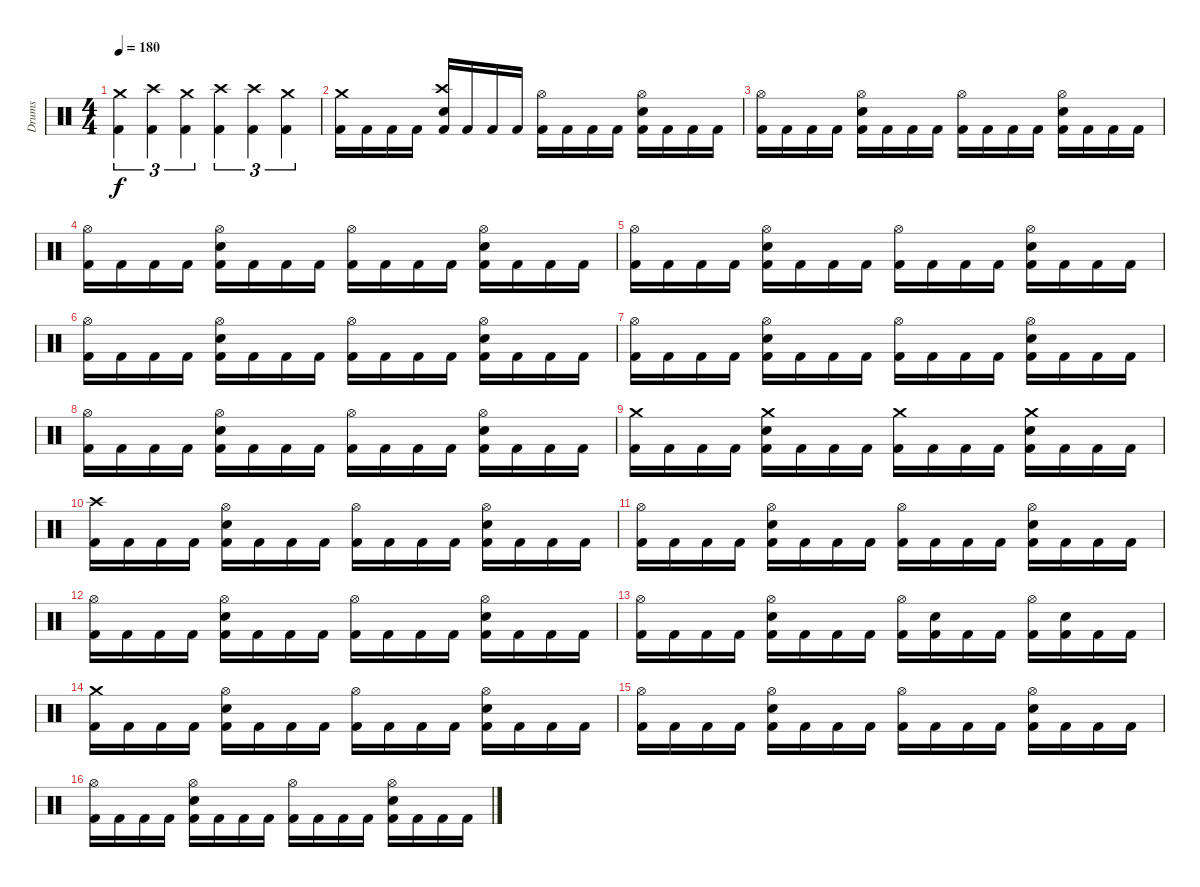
\track ("Drums" "Drums") {instrument percussion}
\staff {score}
\articulation defaults
\ts (4 4)
\tempo 180
\clef neutral
\ks c
("Crash medium (hit)" "Kick (hit) 2").4{tu (3 2) dy f} ("Crash high (hit)" "Kick (hit) 2").4{tu (3 2)} ("Crash medium (hit)" "Kick (hit) 2").4{tu (3 2)} ("Crash high (hit)" "Kick (hit) 2").4{tu (3 2)} ("Crash high (hit)" "Kick (hit) 2").4{tu (3 2)} ("Crash medium (hit)" "Kick (hit) 2").4{tu (3 2)} |
("Crash medium (hit)" "Kick (hit) 2").16 "Kick (hit) 2".16 "Kick (hit) 2".16 "Kick (hit) 2".16 ("Crash high (hit)" "Snare (hit) 2" "Kick (hit) 2").16 "Kick (hit) 2".16 "Kick (hit) 2".16 "Kick (hit) 2".16 ("Hi-Hat (open)" "Kick (hit) 2").16 "Kick (hit) 2".16 "Kick (hit) 2".16 "Kick (hit) 2".16 ("Hi-Hat (open)" "Snare (hit) 2" "Kick (hit) 2").16 "Kick (hit) 2".16 "Kick (hit) 2".16 "Kick (hit) 2".16 |
("Hi-Hat (open)" "Kick (hit) 2").16 "Kick (hit) 2".16 "Kick (hit) 2".16 "Kick (hit) 2".16 ("Hi-Hat (open)" "Snare (hit) 2" "Kick (hit) 2").16 "Kick (hit) 2".16 "Kick (hit) 2".16 "Kick (hit) 2".16 ("Hi-Hat (open)" "Kick (hit) 2").16 "Kick (hit) 2".16 "Kick (hit) 2".16 "Kick (hit) 2".16 ("Hi-Hat (open)" "Snare (hit) 2" "Kick (hit) 2").16 "Kick (hit) 2".16 "Kick (hit) 2".16 "Kick (hit) 2".16 |
("Hi-Hat (open)" "Kick (hit) 2").16 "Kick (hit) 2".16 "Kick (hit) 2".16 "Kick (hit) 2".16 ("Hi-Hat (open)" "Snare (hit) 2" "Kick (hit) 2").16 "Kick (hit) 2".16 "Kick (hit) 2".16 "Kick (hit) 2".16 ("Hi-Hat (open)" "Kick (hit) 2").16 "Kick (hit) 2".16 "Kick (hit) 2".16 "Kick (hit) 2".16 ("Hi-Hat (open)" "Snare (hit) 2" "Kick (hit) 2").16 "Kick (hit) 2".16 "Kick (hit) 2".16 "Kick (hit) 2".16 |
("Hi-Hat (open)" "Kick (hit) 2").16 "Kick (hit) 2".16 "Kick (hit) 2".16 "Kick (hit) 2".16 ("Hi-Hat (open)" "Snare (hit) 2" "Kick (hit) 2").16 "Kick (hit) 2".16 "Kick (hit) 2".16 "Kick (hit) 2".16 ("Hi-Hat (open)" "Kick (hit) 2").16 "Kick (hit) 2".16 "Kick (hit) 2".16 "Kick (hit) 2".16 ("Hi-Hat (open)" "Snare (hit) 2" "Kick (hit) 2").16 "Kick (hit) 2".16 "Kick (hit) 2".16 "Kick (hit) 2".16 |
("Hi-Hat (open)" "Kick (hit) 2").16 "Kick (hit) 2".16 "Kick (hit) 2".16 "Kick (hit) 2".16 ("Hi-Hat (open)" "Snare (hit) 2" "Kick (hit) 2").16 "Kick (hit) 2".16 "Kick (hit) 2".16 "Kick (hit) 2".16 ("Hi-Hat (open)" "Kick (hit) 2").16 "Kick (hit) 2".16 "Kick (hit) 2".16 "Kick (hit) 2".16 ("Hi-Hat (open)" "Snare (hit) 2" "Kick (hit) 2").16 "Kick (hit) 2".16 "Kick (hit) 2".16 "Kick (hit) 2".16 |
("Hi-Hat (open)" "Kick (hit) 2").16 "Kick (hit) 2".16 "Kick (hit) 2".16 "Kick (hit) 2".16 ("Hi-Hat (open)" "Snare (hit) 2" "Kick (hit) 2").16 "Kick (hit) 2".16 "Kick (hit) 2".16 "Kick (hit) 2".16 ("Hi-Hat (open)" "Kick (hit) 2").16 "Kick (hit) 2".16 "Kick (hit) 2".16 "Kick (hit) 2".16 ("Hi-Hat (open)" "Snare (hit) 2" "Kick (hit) 2").16 "Kick (hit) 2".16 "Kick (hit) 2".16 "Kick (hit) 2".16 |
("Hi-Hat (open)" "Kick (hit) 2").16 "Kick (hit) 2".16 "Kick (hit) 2".16 "Kick (hit) 2".16 ("Hi-Hat (open)" "Snare (hit) 2" "Kick (hit) 2").16 "Kick (hit) 2".16 "Kick (hit) 2".16 "Kick (hit) 2".16 ("Hi-Hat (open)" "Kick (hit) 2").16 "Kick (hit) 2".16 "Kick (hit) 2".16 "Kick (hit) 2".16 ("Hi-Hat (open)" "Snare (hit) 2" "Kick (hit) 2").16 "Kick (hit) 2".16 "Kick (hit) 2".16 "Kick (hit) 2".16 |
("Crash medium (hit)" "Kick (hit) 2").16 "Kick (hit) 2".16 "Kick (hit) 2".16 "Kick (hit) 2".16 ("Crash medium (hit)" "Snare (hit) 2" "Kick (hit) 2").16 "Kick (hit) 2".16 "Kick (hit) 2".16 "Kick (hit) 2".16 ("Crash medium (hit)" "Kick (hit) 2").16 "Kick (hit) 2".16 "Kick (hit) 2".16 "Kick (hit) 2".16 ("Crash medium (hit)" "Snare (hit) 2" "Kick (hit) 2").16 "Kick (hit) 2".16 "Kick (hit) 2".16 "Kick (hit) 2".16 |
("Crash high (hit)" "Kick (hit) 2").16 "Kick (hit) 2".16 "Kick (hit) 2".16 "Kick (hit) 2".16 ("Hi-Hat (open)" "Snare (hit) 2" "Kick (hit) 2").16 "Kick (hit) 2".16 "Kick (hit) 2".16 "Kick (hit) 2".16 ("Hi-Hat (open)" "Kick (hit) 2").16 "Kick (hit) 2".16 "Kick (hit) 2".16 "Kick (hit) 2".16 ("Hi-Hat (open)" "Snare (hit) 2" "Kick (hit) 2").16 "Kick (hit) 2".16 "Kick (hit) 2".16 "Kick (hit) 2".16 |
("Hi-Hat (open)" "Kick (hit) 2").16 "Kick (hit) 2".16 "Kick (hit) 2".16 "Kick (hit) 2".16 ("Hi-Hat (open)" "Snare (hit) 2" "Kick (hit) 2").16 "Kick (hit) 2".16 "Kick (hit) 2".16 "Kick (hit) 2".16 ("Hi-Hat (open)" "Kick (hit) 2").16 "Kick (hit) 2".16 "Kick (hit) 2".16 "Kick (hit) 2".16 ("Hi-Hat (open)" "Snare (hit) 2" "Kick (hit) 2").16 "Kick (hit) 2".16 "Kick (hit) 2".16 "Kick (hit) 2".16 |
("Hi-Hat (open)" "Kick (hit) 2").16 "Kick (hit) 2".16 "Kick (hit) 2".16 "Kick (hit) 2".16 ("Hi-Hat (open)" "Snare (hit) 2" "Kick (hit) 2").16 "Kick (hit) 2".16 "Kick (hit) 2".16 "Kick (hit) 2".16 ("Hi-Hat (open)" "Kick (hit) 2").16 "Kick (hit) 2".16 "Kick (hit) 2".16 "Kick (hit) 2".16 ("Hi-Hat (open)" "Snare (hit) 2" "Kick (hit) 2").16 "Kick (hit) 2".16 "Kick (hit) 2".16 "Kick (hit) 2".16 |
("Hi-Hat (open)" "Kick (hit) 2").16 "Kick (hit) 2".16 "Kick (hit) 2".16 "Kick (hit) 2".16 ("Hi-Hat (open)" "Snare (hit) 2" "Kick (hit) 2").16 "Kick (hit) 2".16 "Kick (hit) 2".16 "Kick (hit) 2".16 ("Hi-Hat (open)" "Kick (hit) 2").16 ("Snare (hit) 2" "Kick (hit) 2").16 "Kick (hit) 2".16 "Kick (hit) 2".16 ("Hi-Hat (open)" "Kick (hit) 2").16 ("Snare (hit) 2" "Kick (hit) 2").16 "Kick (hit) 2".16 "Kick (hit) 2".16 |
("Crash medium (hit)" "Kick (hit) 2").16 "Kick (hit) 2".16 "Kick (hit) 2".16 "Kick (hit) 2".16 ("Hi-Hat (open)" "Snare (hit) 2" "Kick (hit) 2").16 "Kick (hit) 2".16 "Kick (hit) 2".16 "Kick (hit) 2".16 ("Hi-Hat (open)" "Kick (hit) 2").16 "Kick (hit) 2".16 "Kick (hit) 2".16 "Kick (hit) 2".16 ("Hi-Hat (open)" "Snare (hit) 2" "Kick (hit) 2").16 "Kick (hit) 2".16 "Kick (hit) 2".16 "Kick (hit) 2".16 |
("Hi-Hat (open)" "Kick (hit) 2").16 "Kick (hit) 2".16 "Kick (hit) 2".16 "Kick (hit) 2".16 ("Hi-Hat (open)" "Snare (hit) 2" "Kick (hit) 2").16 "Kick (hit) 2".16 "Kick (hit) 2".16 "Kick (hit) 2".16 ("Hi-Hat (open)" "Kick (hit) 2").16 "Kick (hit) 2".16 "Kick (hit) 2".16 "Kick (hit) 2".16 ("Hi-Hat (open)" "Snare (hit) 2" "Kick (hit) 2").16 "Kick (hit) 2".16 "Kick (hit) 2".16 "Kick (hit) 2".16 |
("Hi-Hat (open)" "Kick (hit) 2").16 "Kick (hit) 2".16 "Kick (hit) 2".16 "Kick (hit) 2".16 ("Hi-Hat (open)" "Snare (hit) 2" "Kick (hit) 2").16 "Kick (hit) 2".16 "Kick (hit) 2".16 "Kick (hit) 2".16 ("Hi-Hat (open)" "Kick (hit) 2").16 "Kick (hit) 2".16 "Kick (hit) 2".16 "Kick (hit) 2".16 ("Hi-Hat (open)" "Snare (hit) 2" "Kick (hit) 2").16 "Kick (hit) 2".16 "Kick (hit) 2".16 "Kick (hit) 2".16
